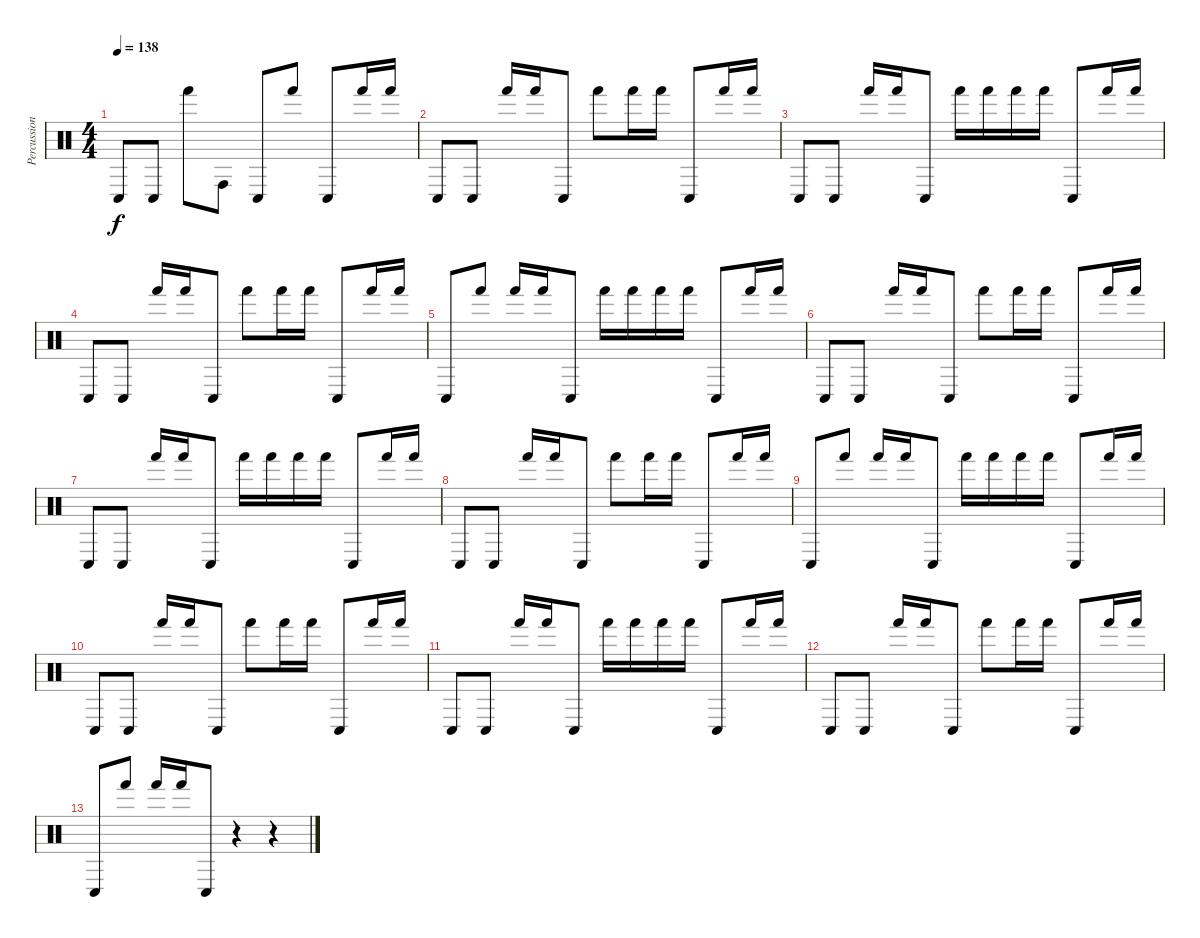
\track ("Percussion" "Percussion") {instrument percussion}
\staff {score}
\articulation defaults
\ts (4 4)
\tempo 138
\clef neutral
\ks c "Conga low (hit)".8{dy f} "Conga low (hit)".8 "Hand (hit)".8 "Conga high (hit)".8 "Conga low (hit)".8 "Hand (hit)".8 "Conga low (hit)".8 "Hand (hit)".16 "Hand (hit)".16
|
"Conga low (hit)".8 "Conga low (hit)".8 "Hand (hit)".16 "Hand (hit)".16 "Conga low (hit)".8 "Hand (hit)".8 "Hand (hit)".16 "Hand (hit)".16 "Conga low (hit)".8 "Hand (hit)".16 "Hand (hit)".16 |
"Conga low (hit)".8 "Conga low (hit)".8 "Hand (hit)".16 "Hand (hit)".16 "Conga low (hit)".8 "Hand (hit)".16 "Hand (hit)".16 "Hand (hit)".16 "Hand (hit)".16 "Conga low (hit)".8 "Hand (hit)".16 "Hand (hit)".16 |
"Conga low (hit)".8 "Conga low (hit)".8 "Hand (hit)".16 "Hand (hit)".16 "Conga low (hit)".8 "Hand (hit)".8 "Hand (hit)".16 "Hand (hit)".16 "Conga low (hit)".8 "Hand (hit)".16 "Hand (hit)".16 |
"Conga low (hit)".8 "Hand (hit)".8 "Hand (hit)".16 "Hand (hit)".16 "Conga low (hit)".8 "Hand (hit)".16 "Hand (hit)".16 "Hand (hit)".16 "Hand (hit)".16 "Conga low (hit)".8 "Hand (hit)".16 "Hand (hit)".16 |
"Conga low (hit)".8 "Conga low (hit)".8 "Hand (hit)".16 "Hand (hit)".16 "Conga low (hit)".8 "Hand (hit)".8 "Hand (hit)".16 "Hand (hit)".16 "Conga low (hit)".8 "Hand (hit)".16 "Hand (hit)".16 |
"Conga low (hit)".8 "Conga low (hit)".8 "Hand (hit)".16 "Hand (hit)".16 "Conga low (hit)".8 "Hand (hit)".16 "Hand (hit)".16 "Hand (hit)".16 "Hand (hit)".16 "Conga low (hit)".8 "Hand (hit)".16 "Hand (hit)".16 |
"Conga low (hit)".8 "Conga low (hit)".8 "Hand (hit)".16 "Hand (hit)".16 "Conga low (hit)".8 "Hand (hit)".8 "Hand (hit)".16 "Hand (hit)".16 "Conga low (hit)".8 "Hand (hit)".16 "Hand (hit)".16 |
"Conga low (hit)".8 "Hand (hit)".8 "Hand (hit)".16 "Hand (hit)".16 "Conga low (hit)".8 "Hand (hit)".16 "Hand (hit)".16 "Hand (hit)".16 "Hand (hit)".16 "Conga low (hit)".8 "Hand (hit)".16 "Hand (hit)".16 |
"Conga low (hit)".8 "Conga low (hit)".8 "Hand (hit)".16 "Hand (hit)".16 "Conga low (hit)".8 "Hand (hit)".8 "Hand (hit)".16 "Hand (hit)".16 "Conga low (hit)".8 "Hand (hit)".16 "Hand (hit)".16 |
"Conga low (hit)".8 "Conga low (hit)".8 "Hand (hit)".16 "Hand (hit)".16 "Conga low (hit)".8 "Hand (hit)".16 "Hand (hit)".16 "Hand (hit)".16 "Hand (hit)".16 "Conga low (hit)".8 "Hand (hit)".16 "Hand (hit)".16 |
"Conga low (hit)".8 "Conga low (hit)".8 "Hand (hit)".16 "Hand (hit)".16 "Conga low (hit)".8 "Hand (hit)".8 "Hand (hit)".16 "Hand (hit)".16 "Conga low (hit)".8 "Hand (hit)".16 "Hand (hit)".16 |
"Conga low (hit)".8 "Hand (hit)".8 "Hand (hit)".16 "Hand (hit)".16 "Conga low (hit)".8 r.4 r.4
